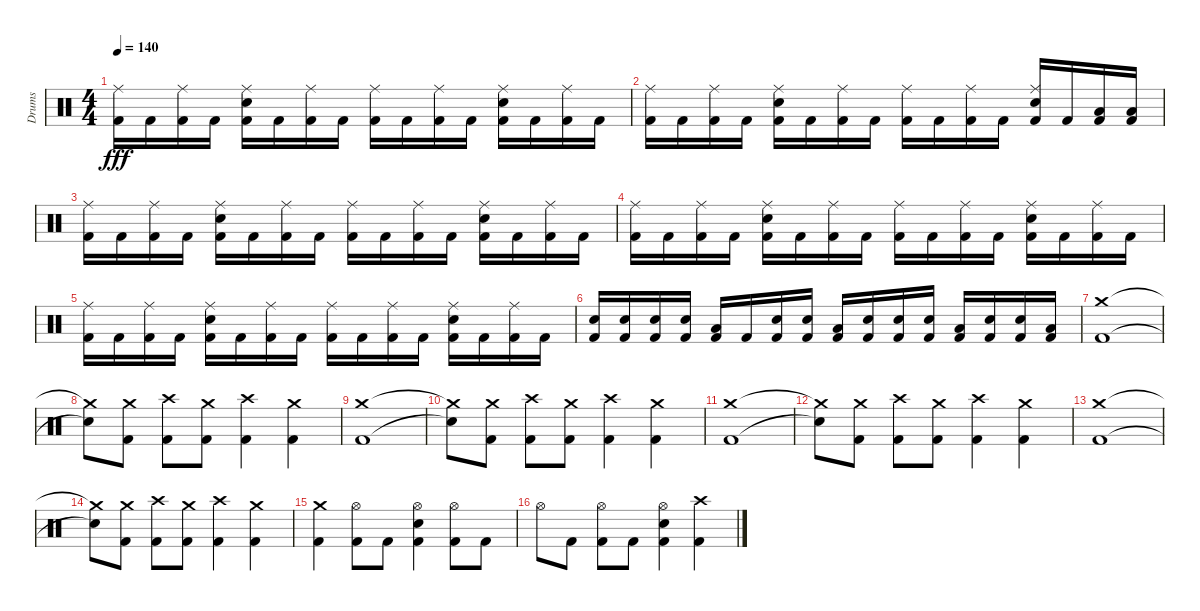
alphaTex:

\track ("Drums" "Drums") {instrument percussion}
\staff {score}
\articulation defaults
\ts (4 4)
\tempo 140
\clef neutral
\ks c
("Kick (hit) 2" "Ride (middle)").16{dy fff} "Kick (hit) 2".16 ("Kick (hit) 2" "Ride (middle)").16 "Kick (hit) 2".16 ("Kick (hit) 2" "Electric Snare (hit)" "Ride (middle)").16 "Kick (hit) 2".16 ("Kick (hit) 2" "Ride (middle)").16 "Kick (hit) 2".16 ("Kick (hit) 2" "Ride (middle)").16 "Kick (hit) 2".16 ("Kick (hit) 2" "Ride (middle)").16 "Kick (hit) 2".16 ("Kick (hit) 2" "Electric Snare (hit)" "Ride (middle)").16 "Kick (hit) 2".16 ("Kick (hit) 2" "Ride (middle)").16 "Kick (hit) 2".16 |
("Kick (hit) 2" "Ride (middle)").16 "Kick (hit) 2".16 ("Kick (hit) 2" "Ride (middle)").16 "Kick (hit) 2".16 ("Kick (hit) 2" "Electric Snare (hit)" "Ride (middle)").16 "Kick (hit) 2".16 ("Kick (hit) 2" "Ride (middle)").16 "Kick (hit) 2".16 ("Kick (hit) 2" "Ride (middle)").16 "Kick (hit) 2".16 ("Kick (hit) 2" "Ride (middle)").16 "Kick (hit) 2".16 ("Kick (hit) 2" "Electric Snare (hit)" "Ride (middle)").16 "Kick (hit) 2".16 ("Kick (hit) 2" "Low Floor Tom (hit)").16 ("Kick (hit) 2" "Low Floor Tom (hit)").16 |
("Kick (hit) 2" "Ride (middle)").16 "Kick (hit) 2".16 ("Kick (hit) 2" "Ride (middle)").16 "Kick (hit) 2".16 ("Kick (hit) 2" "Electric Snare (hit)" "Ride (middle)").16 "Kick (hit) 2".16 ("Kick (hit) 2" "Ride (middle)").16 "Kick (hit) 2".16 ("Kick (hit) 2" "Ride (middle)").16 "Kick (hit) 2".16 ("Kick (hit) 2" "Ride (middle)").16 "Kick (hit) 2".16 ("Kick (hit) 2" "Electric Snare (hit)" "Ride (middle)").16 "Kick (hit) 2".16 ("Kick (hit) 2" "Ride (middle)").16 "Kick (hit) 2".16 |
("Kick (hit) 2" "Ride (middle)").16 "Kick (hit) 2".16 ("Kick (hit) 2" "Ride (middle)").16 "Kick (hit) 2".16 ("Kick (hit) 2" "Electric Snare (hit)" "Ride (middle)").16 "Kick (hit) 2".16 ("Kick (hit) 2" "Ride (middle)").16 "Kick (hit) 2".16 ("Kick (hit) 2" "Ride (middle)").16 "Kick (hit) 2".16 ("Kick (hit) 2" "Ride (middle)").16 "Kick (hit) 2".16 ("Kick (hit) 2" "Electric Snare (hit)" "Ride (middle)").16 "Kick (hit) 2".16 ("Kick (hit) 2" "Ride (middle)").16 "Kick (hit) 2".16 |
("Kick (hit) 2" "Ride (middle)").16 "Kick (hit) 2".16 ("Kick (hit) 2" "Ride (middle)").16 "Kick (hit) 2".16 ("Kick (hit) 2" "Electric Snare (hit)" "Ride (middle)").16 "Kick (hit) 2".16 ("Kick (hit) 2" "Ride (middle)").16 "Kick (hit) 2".16 ("Kick (hit) 2" "Ride (middle)").16 "Kick (hit) 2".16 ("Kick (hit) 2" "Ride (middle)").16 "Kick (hit) 2".16 ("Kick (hit) 2" "Electric Snare (hit)" "Ride (middle)").16 "Kick (hit) 2".16 ("Kick (hit) 2" "Ride (middle)").16 "Kick (hit) 2".16 |
("Kick (hit) 2" "Electric Snare (hit)").16 ("Kick (hit) 2" "Electric Snare (hit)").16 ("Kick (hit) 2" "Electric Snare (hit)").16 ("Kick (hit) 2" "Electric Snare (hit)").16 ("Kick (hit) 2" "Low Floor Tom (hit)").16 "Kick (hit) 2".16 ("Kick (hit) 2" "Electric Snare (hit)").16 ("Kick (hit) 2" "Electric Snare (hit)").16 ("Kick (hit) 2" "Low Floor Tom (hit)").16 ("Kick (hit) 2" "Electric Snare (hit)").16 ("Kick (hit) 2" "Electric Snare (hit)").16 ("Kick (hit) 2" "Electric Snare (hit)").16 ("Kick (hit) 2" "Low Floor Tom (hit)").16 ("Kick (hit) 2" "Electric Snare (hit)").16 ("Kick (hit) 2" "Electric Snare (hit)").16 ("Kick (hit) 2" "Low Floor Tom (hit)").16 |
("Kick (hit) 2" "Crash medium (hit)").1 |
("Snare (hit)"{t} "Crash medium (hit)"{t}).8 ("Kick (hit) 2" "Crash medium (hit)").8 ("Kick (hit) 2" "Crash high (hit)").8 ("Kick (hit) 2" "Crash medium (hit)").8 ("Kick (hit) 2" "Crash high (hit)").4 ("Kick (hit) 2" "Crash medium (hit)").4 |
("Kick (hit) 2" "Crash medium (hit)").1 |
("Snare (hit)"{t} "Crash medium (hit)"{t}).8 ("Kick (hit) 2" "Crash medium (hit)").8 ("Kick (hit) 2" "Crash high (hit)").8 ("Kick (hit) 2" "Crash medium (hit)").8 ("Kick (hit) 2" "Crash high (hit)").4 ("Kick (hit) 2" "Crash medium (hit)").4 |
("Kick (hit) 2" "Crash medium (hit)").1 |
("Snare (hit)"{t} "Crash medium (hit)"{t}).8 ("Kick (hit) 2" "Crash medium (hit)").8 ("Kick (hit) 2" "Crash high (hit)").8 ("Kick (hit) 2" "Crash medium (hit)").8 ("Kick (hit) 2" "Crash high (hit)").4 ("Kick (hit) 2" "Crash medium (hit)").4 |
("Kick (hit) 2" "Crash medium (hit)").1 |
("Snare (hit)"{t} "Crash medium (hit)"{t}).8 ("Kick (hit) 2" "Crash medium (hit)").8 ("Kick (hit) 2" "Crash high (hit)").8 ("Kick (hit) 2" "Crash medium (hit)").8 ("Kick (hit) 2" "Crash high (hit)").4 ("Kick (hit) 2" "Crash medium (hit)").4 |
("Kick (hit) 2" "Crash medium (hit)").4 ("Kick (hit) 2" "Hi-Hat (open)").8 "Kick (hit) 2".8 ("Kick (hit) 2" "Electric Snare (hit)" "Hi-Hat (open)").4 ("Kick (hit) 2" "Hi-Hat (open)").8 "Kick (hit) 2".8 |
"Hi-Hat (open)".8 "Kick (hit) 2".8 ("Kick (hit) 2" "Hi-Hat (open)").8 "Kick (hit) 2".8 ("Kick (hit) 2" "Electric Snare (hit)" "Hi-Hat (open)").4 ("Kick (hit) 2" "Crash high (hit)").4
